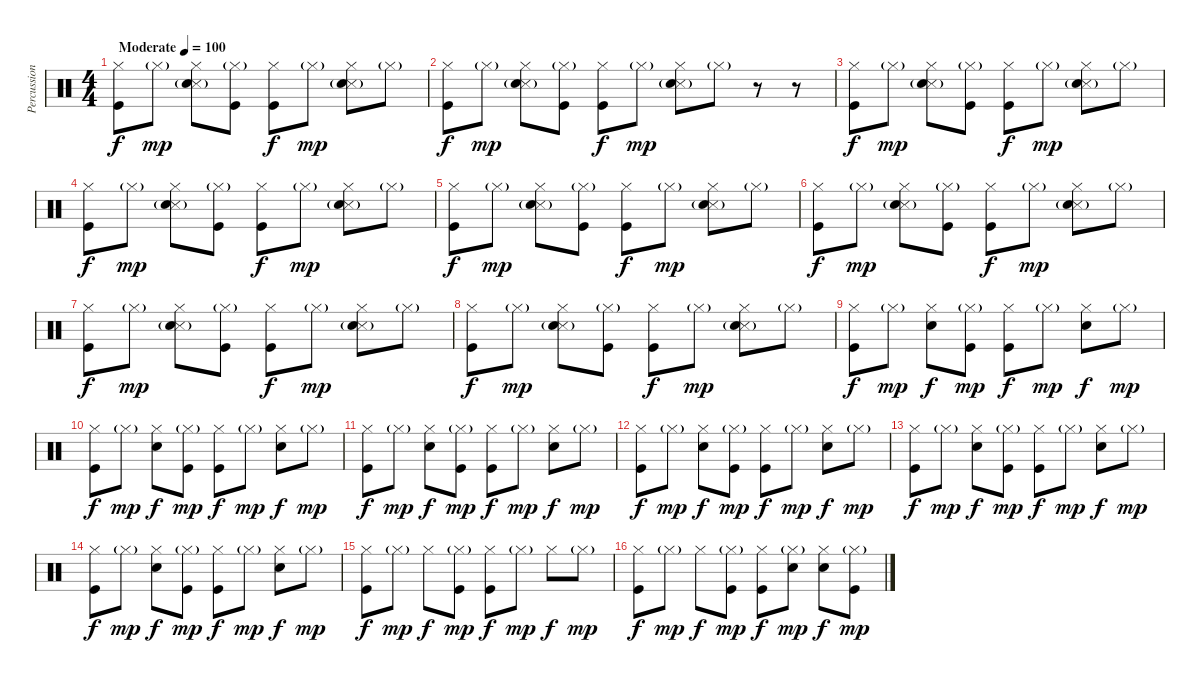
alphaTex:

\track ("Percussion" "Percussion") {instrument percussion bank 242}
\staff {score}
\articulation defaults
\ts (4 4)
\tempo (100 "Moderate")
\clef neutral
\ks c
("Hi-Hat (closed)" "Kick (hit)").8{dy f} "Hi-Hat (closed)"{g}.8{dy mp} ("Hi-Hat (closed)" "Snare (side stick) 3" "Hand Clap (hit)"{g}).8 ("Hi-Hat (closed)"{g} "Kick (hit)").8 ("Hi-Hat (closed)" "Kick (hit)").8{dy f} "Hi-Hat (closed)"{g}.8{dy mp} ("Hi-Hat (closed)" "Snare (side stick) 3" "Hand Clap (hit)"{g}).8 "Hi-Hat (closed)"{g}.8 |
("Hi-Hat (closed)" "Kick (hit)").8{dy f} "Hi-Hat (closed)"{g}.8{dy mp} ("Hi-Hat (closed)" "Snare (side stick) 3" "Hand Clap (hit)"{g}).8 ("Hi-Hat (closed)"{g} "Kick (hit)").8 ("Hi-Hat (closed)" "Kick (hit)").8{dy f} "Hi-Hat (closed)"{g}.8{dy mp} ("Hi-Hat (closed)" "Snare (side stick) 3" "Hand Clap (hit)"{g}).8 "Hi-Hat (closed)"{g}.8 r.8 r.8 |
("Hi-Hat (closed)" "Kick (hit)").8{dy f} "Hi-Hat (closed)"{g}.8{dy mp} ("Hi-Hat (closed)" "Snare (side stick) 3" "Hand Clap (hit)"{g}).8 ("Hi-Hat (closed)"{g} "Kick (hit)").8 ("Hi-Hat (closed)" "Kick (hit)").8{dy f} "Hi-Hat (closed)"{g}.8{dy mp} ("Hi-Hat (closed)" "Snare (side stick) 3" "Hand Clap (hit)"{g}).8 "Hi-Hat (closed)"{g}.8 |
("Hi-Hat (closed)" "Kick (hit)").8{dy f} "Hi-Hat (closed)"{g}.8{dy mp} ("Hi-Hat (closed)" "Snare (side stick) 3" "Hand Clap (hit)"{g}).8 ("Hi-Hat (closed)"{g} "Kick (hit)").8 ("Hi-Hat (closed)" "Kick (hit)").8{dy f} "Hi-Hat (closed)"{g}.8{dy mp} ("Hi-Hat (closed)" "Snare (side stick) 3" "Hand Clap (hit)"{g}).8 "Hi-Hat (closed)"{g}.8 |
("Hi-Hat (closed)" "Kick (hit)").8{dy f} "Hi-Hat (closed)"{g}.8{dy mp} ("Hi-Hat (closed)" "Snare (side stick) 3" "Hand Clap (hit)"{g}).8 ("Hi-Hat (closed)"{g} "Kick (hit)").8 ("Hi-Hat (closed)" "Kick (hit)").8{dy f} "Hi-Hat (closed)"{g}.8{dy mp} ("Hi-Hat (closed)" "Snare (side stick) 3" "Hand Clap (hit)"{g}).8 "Hi-Hat (closed)"{g}.8 |
("Hi-Hat (closed)" "Kick (hit)").8{dy f} "Hi-Hat (closed)"{g}.8{dy mp} ("Hi-Hat (closed)" "Snare (side stick) 3" "Hand Clap (hit)"{g}).8 ("Hi-Hat (closed)"{g} "Kick (hit)").8 ("Hi-Hat (closed)" "Kick (hit)").8{dy f} "Hi-Hat (closed)"{g}.8{dy mp} ("Hi-Hat (closed)" "Snare (side stick) 3" "Hand Clap (hit)"{g}).8 "Hi-Hat (closed)"{g}.8 |
("Hi-Hat (closed)" "Kick (hit)").8{dy f} "Hi-Hat (closed)"{g}.8{dy mp} ("Hi-Hat (closed)" "Snare (side stick) 3" "Hand Clap (hit)"{g}).8 ("Hi-Hat (closed)"{g} "Kick (hit)").8 ("Hi-Hat (closed)" "Kick (hit)").8{dy f} "Hi-Hat (closed)"{g}.8{dy mp} ("Hi-Hat (closed)" "Snare (side stick) 3" "Hand Clap (hit)"{g}).8 "Hi-Hat (closed)"{g}.8 |
("Hi-Hat (closed)" "Kick (hit)").8{dy f} "Hi-Hat (closed)"{g}.8{dy mp} ("Hi-Hat (closed)" "Snare (side stick) 3" "Hand Clap (hit)"{g}).8 ("Hi-Hat (closed)"{g} "Kick (hit)").8 ("Hi-Hat (closed)" "Kick (hit)").8{dy f} "Hi-Hat (closed)"{g}.8{dy mp} ("Hi-Hat (closed)" "Snare (side stick) 3" "Hand Clap (hit)"{g}).8 "Hi-Hat (closed)"{g}.8 |
("Hi-Hat (closed)" "Kick (hit)").8{dy f} "Hi-Hat (closed)"{g}.8{dy mp} ("Hi-Hat (closed)" "Snare (hit) 2").8{dy f} ("Hi-Hat (closed)"{g} "Kick (hit)").8{dy mp} ("Hi-Hat (closed)" "Kick (hit)").8{dy f} "Hi-Hat (closed)"{g}.8{dy mp} ("Hi-Hat (closed)" "Snare (hit) 2").8{dy f} "Hi-Hat (closed)"{g}.8{dy mp} |
("Hi-Hat (closed)" "Kick (hit)").8{dy f} "Hi-Hat (closed)"{g}.8{dy mp} ("Hi-Hat (closed)" "Snare (hit) 2").8{dy f} ("Hi-Hat (closed)"{g} "Kick (hit)").8{dy mp} ("Hi-Hat (closed)" "Kick (hit)").8{dy f} "Hi-Hat (closed)"{g}.8{dy mp} ("Hi-Hat (closed)" "Snare (hit) 2").8{dy f} "Hi-Hat (closed)"{g}.8{dy mp} |
("Hi-Hat (closed)" "Kick (hit)").8{dy f} "Hi-Hat (closed)"{g}.8{dy mp} ("Hi-Hat (closed)" "Snare (hit) 2").8{dy f} ("Hi-Hat (closed)"{g} "Kick (hit)").8{dy mp} ("Hi-Hat (closed)" "Kick (hit)").8{dy f} "Hi-Hat (closed)"{g}.8{dy mp} ("Hi-Hat (closed)" "Snare (hit) 2").8{dy f} "Hi-Hat (closed)"{g}.8{dy mp} |
("Hi-Hat (closed)" "Kick (hit)").8{dy f} "Hi-Hat (closed)"{g}.8{dy mp} ("Hi-Hat (closed)" "Snare (hit) 2").8{dy f} ("Hi-Hat (closed)"{g} "Kick (hit)").8{dy mp} ("Hi-Hat (closed)" "Kick (hit)").8{dy f} "Hi-Hat (closed)"{g}.8{dy mp} ("Hi-Hat (closed)" "Snare (hit) 2").8{dy f} "Hi-Hat (closed)"{g}.8{dy mp} |
("Hi-Hat (closed)" "Kick (hit)").8{dy f} "Hi-Hat (closed)"{g}.8{dy mp} ("Hi-Hat (closed)" "Snare (hit) 2").8{dy f} ("Hi-Hat (closed)"{g} "Kick (hit)").8{dy mp} ("Hi-Hat (closed)" "Kick (hit)").8{dy f} "Hi-Hat (closed)"{g}.8{dy mp} ("Hi-Hat (closed)" "Snare (hit) 2").8{dy f} "Hi-Hat (closed)"{g}.8{dy mp} |
("Hi-Hat (closed)" "Kick (hit)").8{dy f} "Hi-Hat (closed)"{g}.8{dy mp} ("Hi-Hat (closed)" "Snare (hit) 2").8{dy f} ("Hi-Hat (closed)"{g} "Kick (hit)").8{dy mp} ("Hi-Hat (closed)" "Kick (hit)").8{dy f} "Hi-Hat (closed)"{g}.8{dy mp} ("Hi-Hat (closed)" "Snare (hit) 2").8{dy f} "Hi-Hat (closed)"{g}.8{dy mp} |
("Hi-Hat (closed)" "Kick (hit)").8{dy f} "Hi-Hat (closed)"{g}.8{dy mp} "Hi-Hat (closed)".8{dy f} ("Hi-Hat (closed)"{g} "Kick (hit)").8{dy mp} ("Hi-Hat (closed)" "Kick (hit)").8{dy f} "Hi-Hat (closed)"{g}.8{dy mp} "Hi-Hat (closed)".8{dy f} "Hi-Hat (closed)"{g}.8{dy mp} |
("Hi-Hat (closed)" "Kick (hit)").8{dy f} "Hi-Hat (closed)"{g}.8{dy mp} "Hi-Hat (closed)".8{dy f} ("Hi-Hat (closed)"{g} "Kick (hit)").8{dy mp} ("Hi-Hat (closed)" "Kick (hit)").8{dy f} ("Hi-Hat (closed)"{g} "Snare (hit) 2").8{dy mp} ("Hi-Hat (closed)" "Snare (hit) 2").8{dy f} ("Hi-Hat (closed)"{g} "Kick (hit)").8{dy mp}
